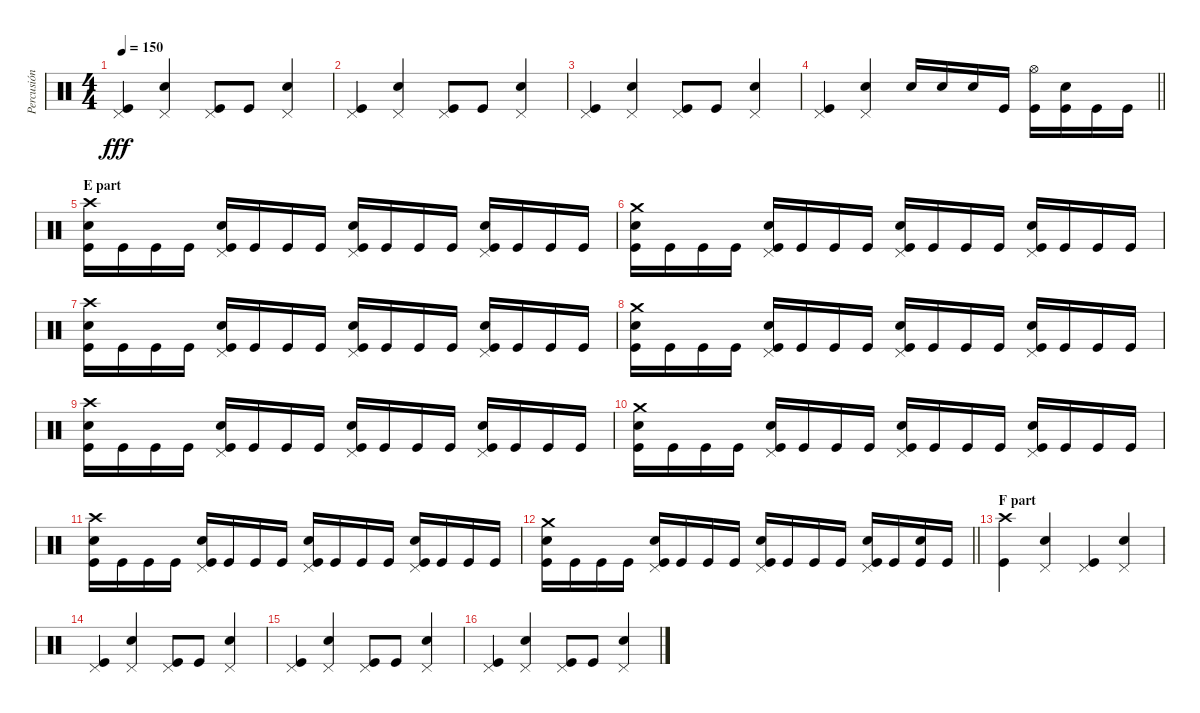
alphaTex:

\track ("Percusión" "Percusión") {instrument percussion}
\staff {score}
\articulation defaults
\ts (4 4)
\tempo 150
\clef neutral
\ks c
("Pedal Hi-Hat (hit)" "Kick (hit)").4{dy fff} ("Pedal Hi-Hat (hit)" "Electric Snare (hit)").4 ("Pedal Hi-Hat (hit)" "Kick (hit)").8 "Kick (hit)".8 ("Pedal Hi-Hat (hit)" "Electric Snare (hit)").4 |
("Pedal Hi-Hat (hit)" "Kick (hit)").4 ("Pedal Hi-Hat (hit)" "Electric Snare (hit)").4 ("Pedal Hi-Hat (hit)" "Kick (hit)").8 "Kick (hit)".8 ("Pedal Hi-Hat (hit)" "Electric Snare (hit)").4 |
("Pedal Hi-Hat (hit)" "Kick (hit)").4 ("Pedal Hi-Hat (hit)" "Electric Snare (hit)").4 ("Pedal Hi-Hat (hit)" "Kick (hit)").8 "Kick (hit)".8 ("Pedal Hi-Hat (hit)" "Electric Snare (hit)").4 |
\barLineRight lightlight
("Pedal Hi-Hat (hit)" "Kick (hit)").4 ("Pedal Hi-Hat (hit)" "Electric Snare (hit)").4 "Electric Snare (hit)".16 "Electric Snare (hit)".16 "Electric Snare (hit)".16 "Kick (hit)".16 ("Hi-Hat (open)" "Kick (hit)").16 ("Electric Snare (hit)" "Kick (hit)").16 "Kick (hit)".16 "Kick (hit)".16 |
\section ("" "E part")
("Crash high (hit)" "Electric Snare (hit)" "Kick (hit)").16 "Kick (hit)".16 "Kick (hit)".16 "Kick (hit)".16 ("Pedal Hi-Hat (hit)" "Electric Snare (hit)" "Kick (hit)").16 "Kick (hit)".16 "Kick (hit)".16 "Kick (hit)".16 ("Pedal Hi-Hat (hit)" "Electric Snare (hit)" "Kick (hit)").16 "Kick (hit)".16 "Kick (hit)".16 "Kick (hit)".16 ("Pedal Hi-Hat (hit)" "Electric Snare (hit)" "Kick (hit)").16 "Kick (hit)".16 "Kick (hit)".16 "Kick (hit)".16 |
("Crash medium (hit)" "Electric Snare (hit)" "Kick (hit)").16 "Kick (hit)".16 "Kick (hit)".16 "Kick (hit)".16 ("Pedal Hi-Hat (hit)" "Electric Snare (hit)" "Kick (hit)").16 "Kick (hit)".16 "Kick (hit)".16 "Kick (hit)".16 ("Pedal Hi-Hat (hit)" "Electric Snare (hit)" "Kick (hit)").16 "Kick (hit)".16 "Kick (hit)".16 "Kick (hit)".16 ("Pedal Hi-Hat (hit)" "Electric Snare (hit)" "Kick (hit)").16 "Kick (hit)".16 "Kick (hit)".16 "Kick (hit)".16 |
("Crash high (hit)" "Electric Snare (hit)" "Kick (hit)").16 "Kick (hit)".16 "Kick (hit)".16 "Kick (hit)".16 ("Pedal Hi-Hat (hit)" "Electric Snare (hit)" "Kick (hit)").16 "Kick (hit)".16 "Kick (hit)".16 "Kick (hit)".16 ("Pedal Hi-Hat (hit)" "Electric Snare (hit)" "Kick (hit)").16 "Kick (hit)".16 "Kick (hit)".16 "Kick (hit)".16 ("Pedal Hi-Hat (hit)" "Electric Snare (hit)" "Kick (hit)").16 "Kick (hit)".16 "Kick (hit)".16 "Kick (hit)".16 |
("Crash medium (hit)" "Electric Snare (hit)" "Kick (hit)").16 "Kick (hit)".16 "Kick (hit)".16 "Kick (hit)".16 ("Pedal Hi-Hat (hit)" "Electric Snare (hit)" "Kick (hit)").16 "Kick (hit)".16 "Kick (hit)".16 "Kick (hit)".16 ("Pedal Hi-Hat (hit)" "Electric Snare (hit)" "Kick (hit)").16 "Kick (hit)".16 "Kick (hit)".16 "Kick (hit)".16 ("Pedal Hi-Hat (hit)" "Electric Snare (hit)" "Kick (hit)").16 "Kick (hit)".16 "Kick (hit)".16 "Kick (hit)".16 |
("Crash high (hit)" "Electric Snare (hit)" "Kick (hit)").16 "Kick (hit)".16 "Kick (hit)".16 "Kick (hit)".16 ("Pedal Hi-Hat (hit)" "Electric Snare (hit)" "Kick (hit)").16 "Kick (hit)".16 "Kick (hit)".16 "Kick (hit)".16 ("Pedal Hi-Hat (hit)" "Electric Snare (hit)" "Kick (hit)").16 "Kick (hit)".16 "Kick (hit)".16 "Kick (hit)".16 ("Pedal Hi-Hat (hit)" "Electric Snare (hit)" "Kick (hit)").16 "Kick (hit)".16 "Kick (hit)".16 "Kick (hit)".16 |
("Crash medium (hit)" "Electric Snare (hit)" "Kick (hit)").16 "Kick (hit)".16 "Kick (hit)".16 "Kick (hit)".16 ("Pedal Hi-Hat (hit)" "Electric Snare (hit)" "Kick (hit)").16 "Kick (hit)".16 "Kick (hit)".16 "Kick (hit)".16 ("Pedal Hi-Hat (hit)" "Electric Snare (hit)" "Kick (hit)").16 "Kick (hit)".16 "Kick (hit)".16 "Kick (hit)".16 ("Pedal Hi-Hat (hit)" "Electric Snare (hit)" "Kick (hit)").16 "Kick (hit)".16 "Kick (hit)".16 "Kick (hit)".16 |
("Crash high (hit)" "Electric Snare (hit)" "Kick (hit)").16 "Kick (hit)".16 "Kick (hit)".16 "Kick (hit)".16 ("Pedal Hi-Hat (hit)" "Electric Snare (hit)" "Kick (hit)").16 "Kick (hit)".16 "Kick (hit)".16 "Kick (hit)".16 ("Pedal Hi-Hat (hit)" "Electric Snare (hit)" "Kick (hit)").16 "Kick (hit)".16 "Kick (hit)".16 "Kick (hit)".16 ("Pedal Hi-Hat (hit)" "Electric Snare (hit)" "Kick (hit)").16 "Kick (hit)".16 "Kick (hit)".16 "Kick (hit)".16 |
\barLineRight lightlight
("Crash medium (hit)" "Electric Snare (hit)" "Kick (hit)").16 "Kick (hit)".16 "Kick (hit)".16 "Kick (hit)".16 ("Pedal Hi-Hat (hit)" "Electric Snare (hit)" "Kick (hit)").16 "Kick (hit)".16 "Kick (hit)".16 "Kick (hit)".16 ("Pedal Hi-Hat (hit)" "Electric Snare (hit)" "Kick (hit)").16 "Kick (hit)".16 "Kick (hit)".16 "Kick (hit)".16 ("Pedal Hi-Hat (hit)" "Electric Snare (hit)" "Kick (hit)").16 "Kick (hit)".16 ("Electric Snare (hit)" "Kick (hit)").16 "Kick (hit)".16 |
\section ("" "F part")
("Crash high (hit)" "Kick (hit)").4 ("Pedal Hi-Hat (hit)" "Electric Snare (hit)").4 ("Pedal Hi-Hat (hit)" "Kick (hit)").4 ("Pedal Hi-Hat (hit)" "Electric Snare (hit)").4 |
("Pedal Hi-Hat (hit)" "Kick (hit)").4 ("Pedal Hi-Hat (hit)" "Electric Snare (hit)").4 ("Pedal Hi-Hat (hit)" "Kick (hit)").8 "Kick (hit)".8 ("Pedal Hi-Hat (hit)" "Electric Snare (hit)").4 |
("Pedal Hi-Hat (hit)" "Kick (hit)").4 ("Pedal Hi-Hat (hit)" "Electric Snare (hit)").4 ("Pedal Hi-Hat (hit)" "Kick (hit)").8 "Kick (hit)".8 ("Pedal Hi-Hat (hit)" "Electric Snare (hit)").4 |
("Pedal Hi-Hat (hit)" "Kick (hit)").4 ("Pedal Hi-Hat (hit)" "Electric Snare (hit)").4 ("Pedal Hi-Hat (hit)" "Kick (hit)").8 "Kick (hit)".8 ("Pedal Hi-Hat (hit)" "Electric Snare (hit)").4
